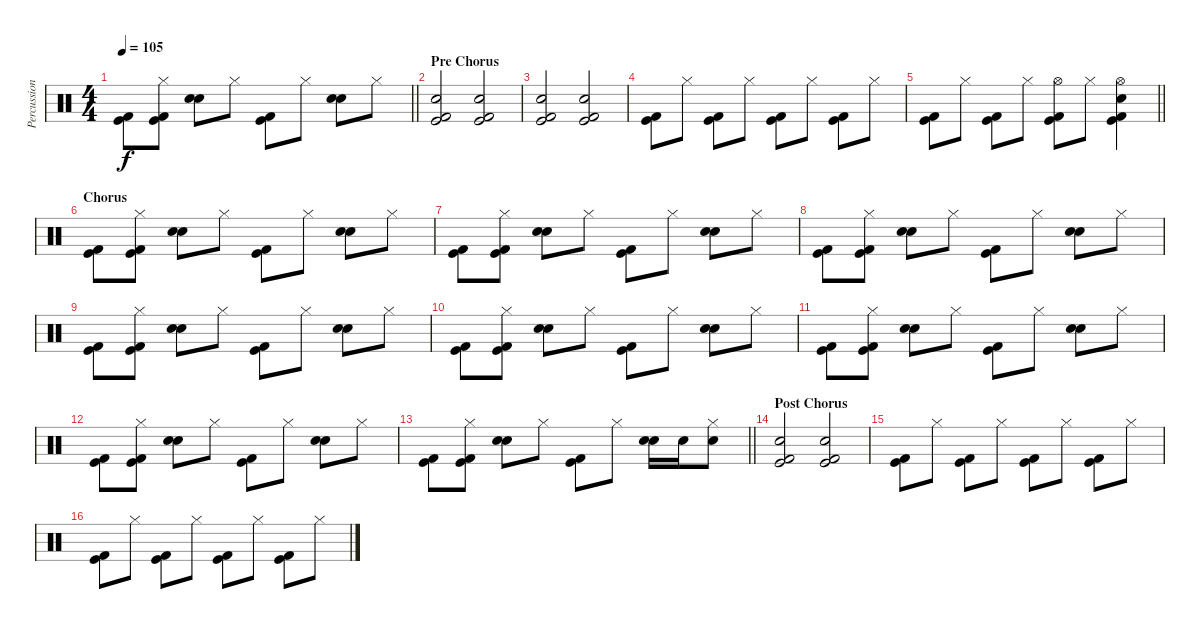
\track ("Percussion" "Percussion") {instrument percussion}
\staff {score}
\articulation defaults
\ts (4 4)
\tempo 105
\clef neutral
\barLineRight lightlight
\ks c
("Kick (hit) 2" "Kick (hit)").8{dy f} ("Hi-Hat (closed)" "Kick (hit) 2" "Kick (hit)").8 ("Hand Clap (hit)" "Electric Snare (hit)").8 "Hi-Hat (closed)".8 ("Kick (hit) 2" "Kick (hit)").8 "Hi-Hat (closed)".8 ("Hand Clap (hit)" "Electric Snare (hit)").8 "Hi-Hat (closed)".8 |
\section ("" "Pre Chorus")
("Electric Snare (hit)" "Kick (hit) 2" "Kick (hit)").2 ("Electric Snare (hit)" "Kick (hit) 2" "Kick (hit)").2 |
("Electric Snare (hit)" "Kick (hit) 2" "Kick (hit)").2 ("Electric Snare (hit)" "Kick (hit) 2" "Kick (hit)").2 |
("Kick (hit) 2" "Kick (hit)").8 "Hi-Hat (closed)".8 ("Kick (hit) 2" "Kick (hit)").8 "Hi-Hat (closed)".8 ("Kick (hit) 2" "Kick (hit)").8 "Hi-Hat (closed)".8 ("Kick (hit) 2" "Kick (hit)").8 "Hi-Hat (closed)".8 |
\barLineRight lightlight
("Kick (hit) 2" "Kick (hit)").8 "Hi-Hat (closed)".8 ("Kick (hit)" "Kick (hit) 2").8 "Hi-Hat (closed)".8 ("Hi-Hat (open)" "Kick (hit) 2" "Kick (hit)").8 "Hi-Hat (closed)".8 ("Electric Snare (hit)" "Hi-Hat (open)" "Kick (hit) 2" "Kick (hit)").4 |
\section ("" "Chorus")
("Kick (hit) 2" "Kick (hit)").8 ("Hi-Hat (closed)" "Kick (hit) 2" "Kick (hit)").8 ("Hand Clap (hit)" "Electric Snare (hit)").8 "Hi-Hat (closed)".8 ("Kick (hit) 2" "Kick (hit)").8 "Hi-Hat (closed)".8 ("Hand Clap (hit)" "Electric Snare (hit)").8 "Hi-Hat (closed)".8 |
("Kick (hit) 2" "Kick (hit)").8 ("Hi-Hat (closed)" "Kick (hit) 2" "Kick (hit)").8 ("Hand Clap (hit)" "Electric Snare (hit)").8 "Hi-Hat (closed)".8 ("Kick (hit) 2" "Kick (hit)").8 "Hi-Hat (closed)".8 ("Hand Clap (hit)" "Electric Snare (hit)").8 "Hi-Hat (closed)".8 |
("Kick (hit) 2" "Kick (hit)").8 ("Hi-Hat (closed)" "Kick (hit) 2" "Kick (hit)").8 ("Hand Clap (hit)" "Electric Snare (hit)").8 "Hi-Hat (closed)".8 ("Kick (hit) 2" "Kick (hit)").8 "Hi-Hat (closed)".8 ("Hand Clap (hit)" "Electric Snare (hit)").8 "Hi-Hat (closed)".8 |
("Kick (hit) 2" "Kick (hit)").8 ("Hi-Hat (closed)" "Kick (hit) 2" "Kick (hit)").8 ("Hand Clap (hit)" "Electric Snare (hit)").8 "Hi-Hat (closed)".8 ("Kick (hit) 2" "Kick (hit)").8 "Hi-Hat (closed)".8 ("Hand Clap (hit)" "Electric Snare (hit)").8 "Hi-Hat (closed)".8 |
("Kick (hit) 2" "Kick (hit)").8 ("Hi-Hat (closed)" "Kick (hit) 2" "Kick (hit)").8 ("Hand Clap (hit)" "Electric Snare (hit)").8 "Hi-Hat (closed)".8 ("Kick (hit) 2" "Kick (hit)").8 "Hi-Hat (closed)".8 ("Hand Clap (hit)" "Electric Snare (hit)").8 "Hi-Hat (closed)".8 |
("Kick (hit) 2" "Kick (hit)").8 ("Hi-Hat (closed)" "Kick (hit) 2" "Kick (hit)").8 ("Hand Clap (hit)" "Electric Snare (hit)").8 "Hi-Hat (closed)".8 ("Kick (hit) 2" "Kick (hit)").8 "Hi-Hat (closed)".8 ("Hand Clap (hit)" "Electric Snare (hit)").8 "Hi-Hat (closed)".8 |
("Kick (hit) 2" "Kick (hit)").8 ("Hi-Hat (closed)" "Kick (hit) 2" "Kick (hit)").8 ("Hand Clap (hit)" "Electric Snare (hit)").8 "Hi-Hat (closed)".8 ("Kick (hit) 2" "Kick (hit)").8 "Hi-Hat (closed)".8 ("Hand Clap (hit)" "Electric Snare (hit)").8 "Hi-Hat (closed)".8 |
\barLineRight lightlight
("Kick (hit) 2" "Kick (hit)").8 ("Hi-Hat (closed)" "Kick (hit) 2" "Kick (hit)").8 ("Hand Clap (hit)" "Electric Snare (hit)").8 "Hi-Hat (closed)".8 ("Kick (hit) 2" "Kick (hit)").8 "Hi-Hat (closed)".8 ("Snare (hit) 2" "Hand Clap (hit)").16 "Snare (hit) 2".16 ("Hi-Hat (closed)" "Snare (hit) 2").8 |
\section ("" "Post Chorus")
("Electric Snare (hit)" "Kick (hit) 2" "Kick (hit)").2 ("Electric Snare (hit)" "Kick (hit) 2" "Kick (hit)").2 |
("Kick (hit) 2" "Kick (hit)").8 "Hi-Hat (closed)".8 ("Kick (hit) 2" "Kick (hit)").8 "Hi-Hat (closed)".8 ("Kick (hit) 2" "Kick (hit)").8 "Hi-Hat (closed)".8 ("Kick (hit) 2" "Kick (hit)").8 "Hi-Hat (closed)".8 |
("Kick (hit) 2" "Kick (hit)").8 "Hi-Hat (closed)".8 ("Kick (hit) 2" "Kick (hit)").8 "Hi-Hat (closed)".8 ("Kick (hit) 2" "Kick (hit)").8 "Hi-Hat (closed)".8 ("Kick (hit) 2" "Kick (hit)").8 "Hi-Hat (closed)".8
